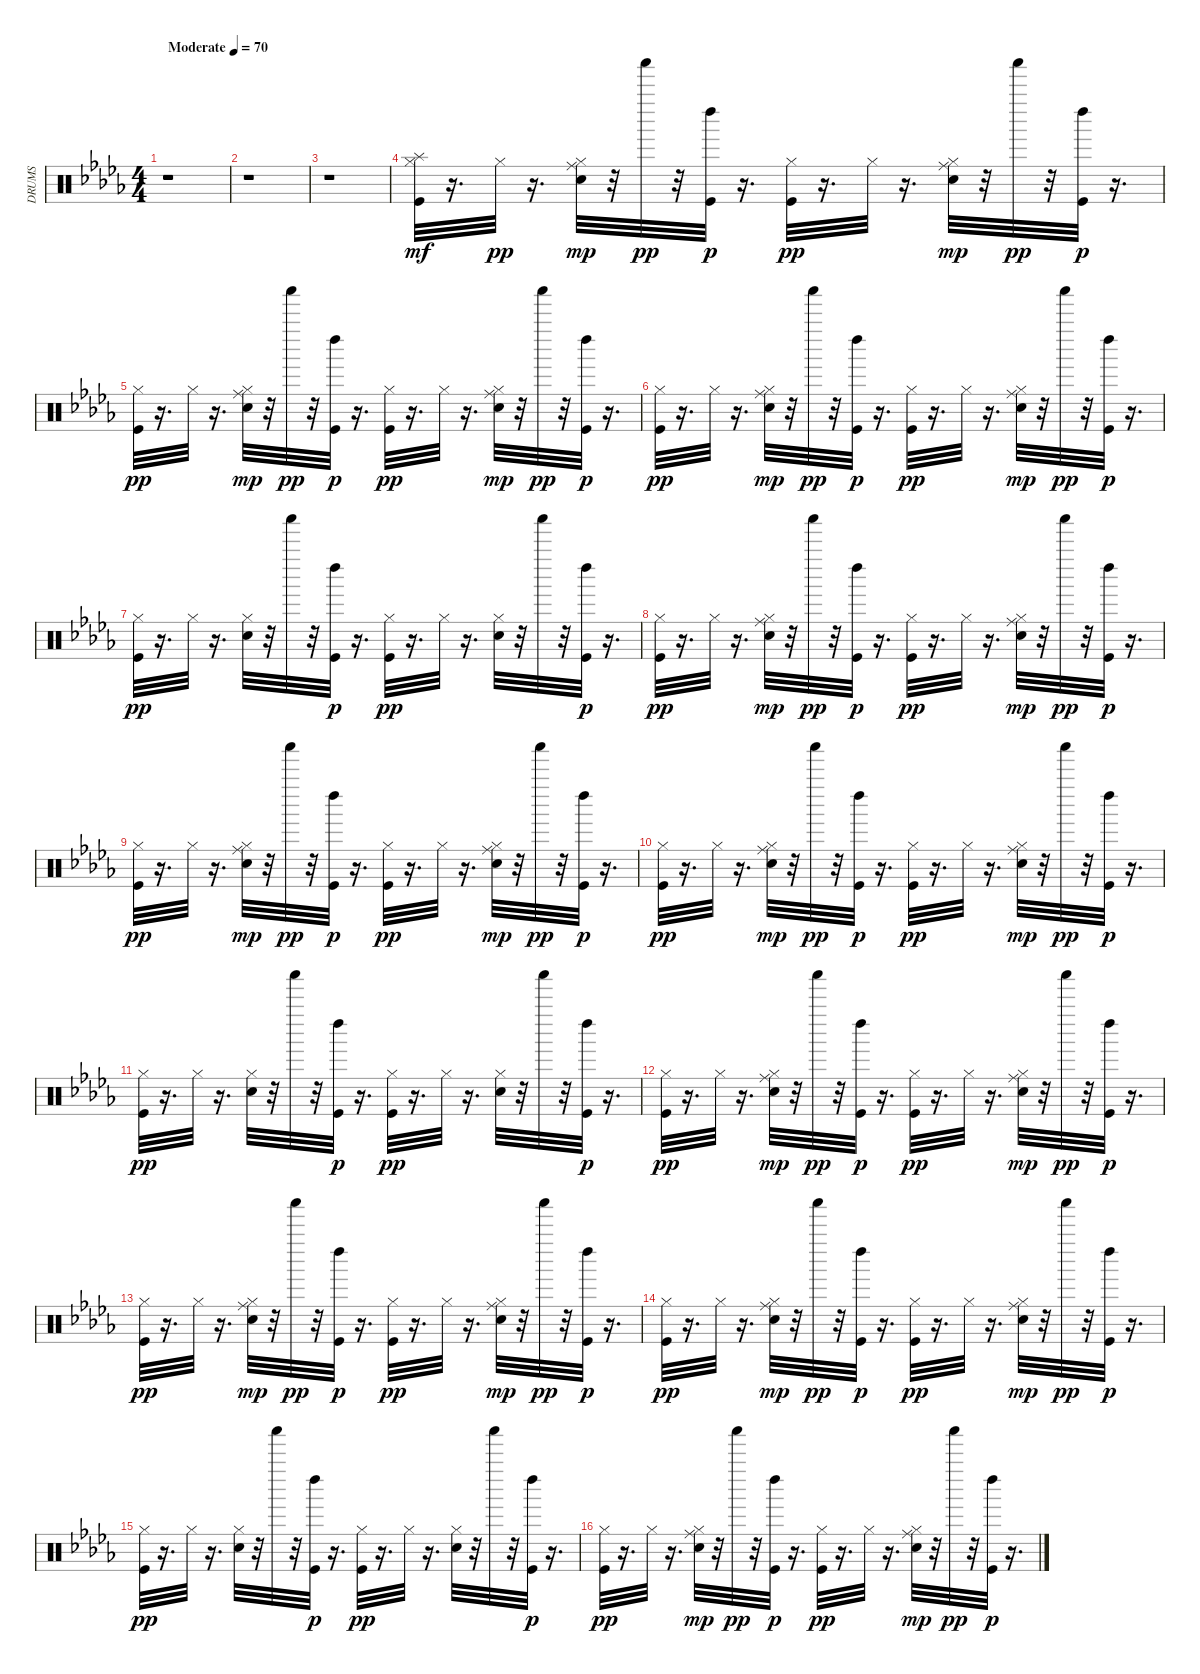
\track ("DRUMS" "DRUMS") {instrument percussion}
\staff {score}
\articulation defaults
\ts (4 4)
\tempo (70 "Moderate")
\clef neutral
\ks bbminor
r.1{dy mf} |
r.1 |
r.1 |
("Kick (hit)" "Hi-Hat (closed)" "Splash (hit)").32 r.16{d} "Hi-Hat (closed)".32{dy pp} r.16{d} ("Electric Snare (hit)" "Hi-Hat (closed)" "Ride (middle)").32{dy mp} r.32 "Shaker (hit)".32{dy pp} r.32 ("Kick (hit)" "Left Maraca (hit)").32{dy p} r.16{d} ("Kick (hit)" "Hi-Hat (closed)").32{dy pp} r.16{d} "Hi-Hat (closed)".32 r.16{d} ("Electric Snare (hit)" "Hi-Hat (closed)" "Ride (middle)").32{dy mp} r.32 "Shaker (hit)".32{dy pp} r.32 ("Kick (hit)" "Left Maraca (hit)").32{dy p} r.16{d} |
("Kick (hit)" "Hi-Hat (closed)").32{dy pp} r.16{d} "Hi-Hat (closed)".32 r.16{d} ("Electric Snare (hit)" "Hi-Hat (closed)" "Ride (middle)").32{dy mp} r.32 "Shaker (hit)".32{dy pp} r.32 ("Kick (hit)" "Left Maraca (hit)").32{dy p} r.16{d} ("Kick (hit)" "Hi-Hat (closed)").32{dy pp} r.16{d} "Hi-Hat (closed)".32 r.16{d} ("Electric Snare (hit)" "Hi-Hat (closed)" "Ride (middle)").32{dy mp} r.32 "Shaker (hit)".32{dy pp} r.32 ("Kick (hit)" "Left Maraca (hit)").32{dy p} r.16{d} |
("Kick (hit)" "Hi-Hat (closed)").32{dy pp} r.16{d} "Hi-Hat (closed)".32 r.16{d} ("Electric Snare (hit)" "Hi-Hat (closed)" "Ride (middle)").32{dy mp} r.32 "Shaker (hit)".32{dy pp} r.32 ("Kick (hit)" "Left Maraca (hit)").32{dy p} r.16{d} ("Kick (hit)" "Hi-Hat (closed)").32{dy pp} r.16{d} "Hi-Hat (closed)".32 r.16{d} ("Electric Snare (hit)" "Hi-Hat (closed)" "Ride (middle)").32{dy mp} r.32 "Shaker (hit)".32{dy pp} r.32 ("Kick (hit)" "Left Maraca (hit)").32{dy p} r.16{d} |
("Kick (hit)" "Hi-Hat (closed)").32{dy pp} r.16{d} "Hi-Hat (closed)".32 r.16{d} ("Electric Snare (hit)" "Hi-Hat (closed)").32 r.32 "Shaker (hit)".32 r.32 ("Kick (hit)" "Left Maraca (hit)").32{dy p} r.16{d} ("Kick (hit)" "Hi-Hat (closed)").32{dy pp} r.16{d} "Hi-Hat (closed)".32 r.16{d} ("Electric Snare (hit)" "Hi-Hat (closed)").32 r.32 "Shaker (hit)".32 r.32 ("Kick (hit)" "Left Maraca (hit)").32{dy p} r.16{d} |
("Kick (hit)" "Hi-Hat (closed)").32{dy pp} r.16{d} "Hi-Hat (closed)".32 r.16{d} ("Electric Snare (hit)" "Hi-Hat (closed)" "Ride (middle)").32{dy mp} r.32 "Shaker (hit)".32{dy pp} r.32 ("Kick (hit)" "Left Maraca (hit)").32{dy p} r.16{d} ("Kick (hit)" "Hi-Hat (closed)").32{dy pp} r.16{d} "Hi-Hat (closed)".32 r.16{d} ("Electric Snare (hit)" "Hi-Hat (closed)" "Ride (middle)").32{dy mp} r.32 "Shaker (hit)".32{dy pp} r.32 ("Kick (hit)" "Left Maraca (hit)").32{dy p} r.16{d} |
("Kick (hit)" "Hi-Hat (closed)").32{dy pp} r.16{d} "Hi-Hat (closed)".32 r.16{d} ("Electric Snare (hit)" "Hi-Hat (closed)" "Ride (middle)").32{dy mp} r.32 "Shaker (hit)".32{dy pp} r.32 ("Kick (hit)" "Left Maraca (hit)").32{dy p} r.16{d} ("Kick (hit)" "Hi-Hat (closed)").32{dy pp} r.16{d} "Hi-Hat (closed)".32 r.16{d} ("Electric Snare (hit)" "Hi-Hat (closed)" "Ride (middle)").32{dy mp} r.32 "Shaker (hit)".32{dy pp} r.32 ("Kick (hit)" "Left Maraca (hit)").32{dy p} r.16{d} |
("Kick (hit)" "Hi-Hat (closed)").32{dy pp} r.16{d} "Hi-Hat (closed)".32 r.16{d} ("Electric Snare (hit)" "Hi-Hat (closed)" "Ride (middle)").32{dy mp} r.32 "Shaker (hit)".32{dy pp} r.32 ("Kick (hit)" "Left Maraca (hit)").32{dy p} r.16{d} ("Kick (hit)" "Hi-Hat (closed)").32{dy pp} r.16{d} "Hi-Hat (closed)".32 r.16{d} ("Electric Snare (hit)" "Hi-Hat (closed)" "Ride (middle)").32{dy mp} r.32 "Shaker (hit)".32{dy pp} r.32 ("Kick (hit)" "Left Maraca (hit)").32{dy p} r.16{d} |
("Kick (hit)" "Hi-Hat (closed)").32{dy pp} r.16{d} "Hi-Hat (closed)".32 r.16{d} ("Electric Snare (hit)" "Hi-Hat (closed)").32 r.32 "Shaker (hit)".32 r.32 ("Kick (hit)" "Left Maraca (hit)").32{dy p} r.16{d} ("Kick (hit)" "Hi-Hat (closed)").32{dy pp} r.16{d} "Hi-Hat (closed)".32 r.16{d} ("Electric Snare (hit)" "Hi-Hat (closed)").32 r.32 "Shaker (hit)".32 r.32 ("Kick (hit)" "Left Maraca (hit)").32{dy p} r.16{d} |
("Kick (hit)" "Hi-Hat (closed)").32{dy pp} r.16{d} "Hi-Hat (closed)".32 r.16{d} ("Electric Snare (hit)" "Hi-Hat (closed)" "Ride (middle)").32{dy mp} r.32 "Shaker (hit)".32{dy pp} r.32 ("Kick (hit)" "Left Maraca (hit)").32{dy p} r.16{d} ("Kick (hit)" "Hi-Hat (closed)").32{dy pp} r.16{d} "Hi-Hat (closed)".32 r.16{d} ("Electric Snare (hit)" "Hi-Hat (closed)" "Ride (middle)").32{dy mp} r.32 "Shaker (hit)".32{dy pp} r.32 ("Kick (hit)" "Left Maraca (hit)").32{dy p} r.16{d} |
("Kick (hit)" "Hi-Hat (closed)").32{dy pp} r.16{d} "Hi-Hat (closed)".32 r.16{d} ("Electric Snare (hit)" "Hi-Hat (closed)" "Ride (middle)").32{dy mp} r.32 "Shaker (hit)".32{dy pp} r.32 ("Kick (hit)" "Left Maraca (hit)").32{dy p} r.16{d} ("Kick (hit)" "Hi-Hat (closed)").32{dy pp} r.16{d} "Hi-Hat (closed)".32 r.16{d} ("Electric Snare (hit)" "Hi-Hat (closed)" "Ride (middle)").32{dy mp} r.32 "Shaker (hit)".32{dy pp} r.32 ("Kick (hit)" "Left Maraca (hit)").32{dy p} r.16{d} |
("Kick (hit)" "Hi-Hat (closed)").32{dy pp} r.16{d} "Hi-Hat (closed)".32 r.16{d} ("Electric Snare (hit)" "Hi-Hat (closed)" "Ride (middle)").32{dy mp} r.32 "Shaker (hit)".32{dy pp} r.32 ("Kick (hit)" "Left Maraca (hit)").32{dy p} r.16{d} ("Kick (hit)" "Hi-Hat (closed)").32{dy pp} r.16{d} "Hi-Hat (closed)".32 r.16{d} ("Electric Snare (hit)" "Hi-Hat (closed)" "Ride (middle)").32{dy mp} r.32 "Shaker (hit)".32{dy pp} r.32 ("Kick (hit)" "Left Maraca (hit)").32{dy p} r.16{d} |
("Kick (hit)" "Hi-Hat (closed)").32{dy pp} r.16{d} "Hi-Hat (closed)".32 r.16{d} ("Electric Snare (hit)" "Hi-Hat (closed)").32 r.32 "Shaker (hit)".32 r.32 ("Kick (hit)" "Left Maraca (hit)").32{dy p} r.16{d} ("Kick (hit)" "Hi-Hat (closed)").32{dy pp} r.16{d} "Hi-Hat (closed)".32 r.16{d} ("Electric Snare (hit)" "Hi-Hat (closed)").32 r.32 "Shaker (hit)".32 r.32 ("Kick (hit)" "Left Maraca (hit)").32{dy p} r.16{d} |
("Kick (hit)" "Hi-Hat (closed)").32{dy pp} r.16{d} "Hi-Hat (closed)".32 r.16{d} ("Electric Snare (hit)" "Hi-Hat (closed)" "Ride (middle)").32{dy mp} r.32 "Shaker (hit)".32{dy pp} r.32 ("Kick (hit)" "Left Maraca (hit)").32{dy p} r.16{d} ("Kick (hit)" "Hi-Hat (closed)").32{dy pp} r.16{d} "Hi-Hat (closed)".32 r.16{d} ("Electric Snare (hit)" "Hi-Hat (closed)" "Ride (middle)").32{dy mp} r.32 "Shaker (hit)".32{dy pp} r.32 ("Kick (hit)" "Left Maraca (hit)").32{dy p} r.16{d}
